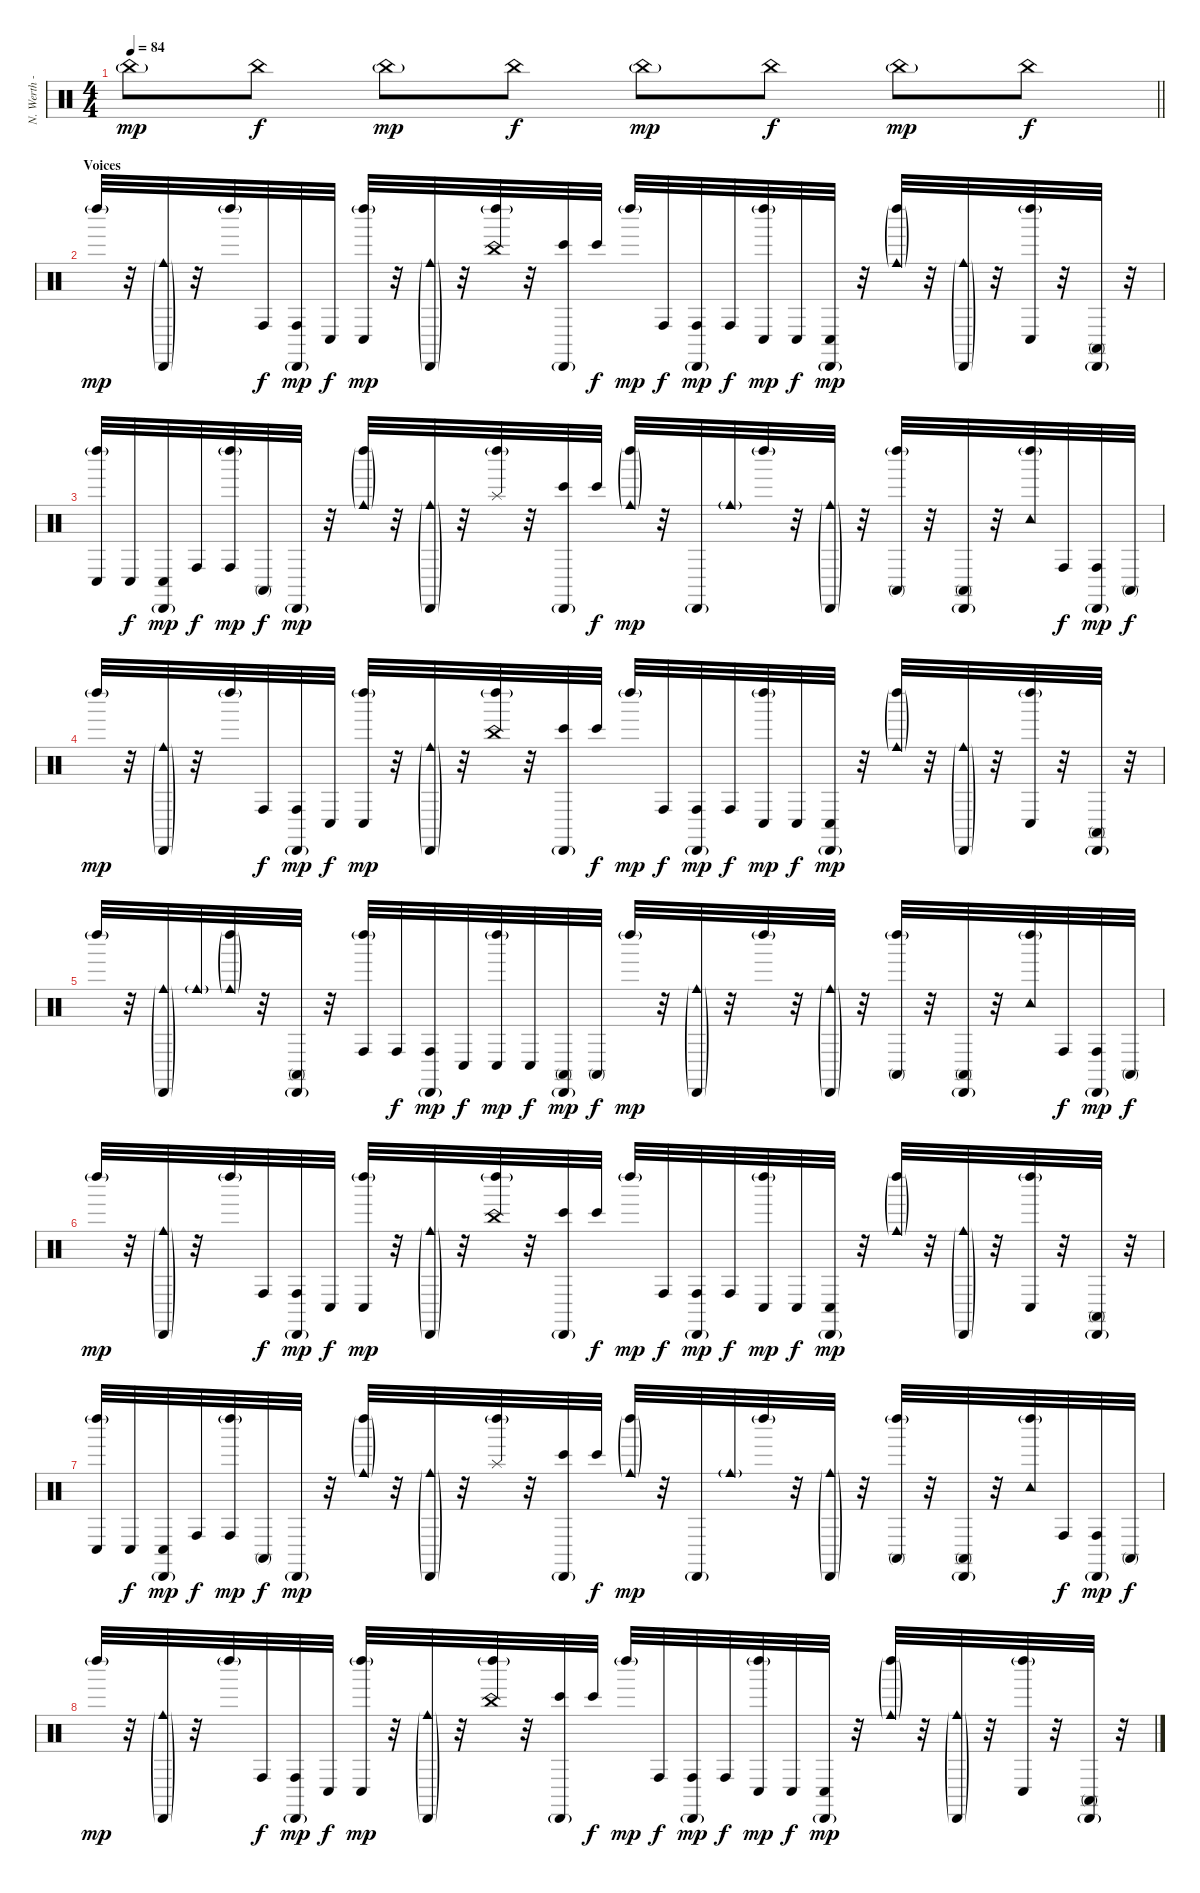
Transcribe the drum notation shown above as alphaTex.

\track ("N. Werth - Percussion" "N. Werth -") {instrument percussion}
\staff {score}
\articulation defaults
\ts (4 4)
\tempo 84
\clef neutral
\barLineRight lightlight
\ks c "China (hit)"{g}.8{dy mp} "China (hit)".8{dy f} "China (hit)"{g}.8{dy mp} "China (hit)".8{dy f} "China (hit)"{g}.8{dy mp} "China (hit)".8{dy f} "China (hit)"{g}.8{dy mp} "China (hit)".8{dy f}
|
\section ("" "Voices")
"Left Maraca (hit)"{g}.32{dy mp} r.32 ("Cabasa (hit)"{g} "Cowbell medium (hit)"{g}).32 r.32 "Left Maraca (hit)"{g}.32 "Conga high (hit)".32{dy f} ("Cabasa (hit)"{g} "Conga high (hit)").32{dy mp} "Conga low (hit)".32{dy f} ("Left Maraca (hit)"{g} "Conga low (hit)").32{dy mp} r.32 ("Cabasa (hit)"{g} "Cowbell medium (hit)"{g}).32 r.32 ("Left Maraca (hit)"{g} "China (hit)").32 r.32 ("Cabasa (hit)"{g} "Bongo High (hit)").32 "Bongo High (hit)".32{dy f} "Left Maraca (hit)"{g}.32{dy mp} "Conga high (hit)".32{dy f} ("Cabasa (hit)"{g} "Conga high (hit)").32{dy mp} "Conga high (hit)".32{dy f} ("Left Maraca (hit)"{g} "Conga low (hit)").32{dy mp} "Conga low (hit)".32{dy f} ("Cabasa (hit)"{g} "Conga low (hit)").32{dy mp} r.32 ("Left Maraca (hit)"{g} "Cowbell medium (hit)"{g}).32 r.32 ("Cabasa (hit)"{g} "Cowbell medium (hit)"{g}).32 r.32 ("Left Maraca (hit)"{g} "Conga low (hit)").32 r.32 ("Cabasa (hit)"{g} "Conga high (mute)").32 r.32 |
("Left Maraca (hit)"{g} "Conga low (hit)").32 "Conga low (hit)".32{dy f} ("Cabasa (hit)"{g} "Conga low (hit)").32{dy mp} "Conga high (hit)".32{dy f} ("Left Maraca (hit)"{g} "Conga high (hit)").32{dy mp} "Conga high (mute)".32{dy f} "Cabasa (hit)"{g}.32{dy mp} r.32 ("Left Maraca (hit)"{g} "Cowbell medium (hit)"{g}).32 r.32 ("Cabasa (hit)"{g} "Cowbell medium (hit)"{g}).32 r.32 ("Left Maraca (hit)"{g} "Splash (hit)").32 r.32 ("Cabasa (hit)"{g} "Bongo High (hit)").32 "Bongo High (hit)".32{dy f} ("Left Maraca (hit)"{g} "Cowbell medium (hit)"{g}).32{dy mp} r.32 "Cabasa (hit)"{g}.32 "Cowbell medium (hit)"{g}.32 "Left Maraca (hit)"{g}.32 r.32 ("Cabasa (hit)"{g} "Cowbell medium (hit)"{g}).32 r.32 ("Left Maraca (hit)"{g} "Conga high (mute)").32 r.32 ("Cabasa (hit)"{g} "Conga high (mute)").32 r.32 ("Left Maraca (hit)"{g} "Tambourine (hit)").32 "Conga high (hit)".32{dy f} ("Cabasa (hit)"{g} "Conga high (hit)").32{dy mp} "Conga high (mute)".32{dy f} |
"Left Maraca (hit)"{g}.32{dy mp} r.32 ("Cabasa (hit)"{g} "Cowbell medium (hit)"{g}).32 r.32 "Left Maraca (hit)"{g}.32 "Conga high (hit)".32{dy f} ("Cabasa (hit)"{g} "Conga high (hit)").32{dy mp} "Conga low (hit)".32{dy f} ("Left Maraca (hit)"{g} "Conga low (hit)").32{dy mp} r.32 ("Cabasa (hit)"{g} "Cowbell medium (hit)"{g}).32 r.32 ("Left Maraca (hit)"{g} "China (hit)").32 r.32 ("Cabasa (hit)"{g} "Bongo High (hit)").32 "Bongo High (hit)".32{dy f} "Left Maraca (hit)"{g}.32{dy mp} "Conga high (hit)".32{dy f} ("Cabasa (hit)"{g} "Conga high (hit)").32{dy mp} "Conga high (hit)".32{dy f} ("Left Maraca (hit)"{g} "Conga low (hit)").32{dy mp} "Conga low (hit)".32{dy f} ("Cabasa (hit)"{g} "Conga low (hit)").32{dy mp} r.32 ("Left Maraca (hit)"{g} "Cowbell medium (hit)"{g}).32 r.32 ("Cabasa (hit)"{g} "Cowbell medium (hit)"{g}).32 r.32 ("Left Maraca (hit)"{g} "Conga low (hit)").32 r.32 ("Cabasa (hit)"{g} "Conga high (mute)").32 r.32 |
"Left Maraca (hit)"{g}.32 r.32 ("Cabasa (hit)"{g} "Cowbell medium (hit)"{g}).32 "Cowbell medium (hit)"{g}.32 ("Left Maraca (hit)"{g} "Cowbell medium (hit)"{g}).32 r.32 ("Cabasa (hit)"{g} "Conga high (mute)").32 r.32 ("Left Maraca (hit)"{g} "Conga high (hit)").32 "Conga high (hit)".32{dy f} ("Cabasa (hit)"{g} "Conga high (hit)").32{dy mp} "Conga low (hit)".32{dy f} ("Left Maraca (hit)"{g} "Conga low (hit)").32{dy mp} "Conga low (hit)".32{dy f} ("Cabasa (hit)"{g} "Conga high (mute)").32{dy mp} "Conga high (mute)".32{dy f} "Left Maraca (hit)"{g}.32{dy mp} r.32 ("Cabasa (hit)"{g} "Cowbell medium (hit)"{g}).32 r.32 "Left Maraca (hit)"{g}.32 r.32 ("Cabasa (hit)"{g} "Cowbell medium (hit)"{g}).32 r.32 ("Left Maraca (hit)"{g} "Conga high (mute)").32 r.32 ("Cabasa (hit)"{g} "Conga high (mute)").32 r.32 ("Left Maraca (hit)"{g} "Tambourine (hit)").32 "Conga high (hit)".32{dy f} ("Cabasa (hit)"{g} "Conga high (hit)").32{dy mp} "Conga high (mute)".32{dy f} |
"Left Maraca (hit)"{g}.32{dy mp} r.32 ("Cabasa (hit)"{g} "Cowbell medium (hit)"{g}).32 r.32 "Left Maraca (hit)"{g}.32 "Conga high (hit)".32{dy f} ("Cabasa (hit)"{g} "Conga high (hit)").32{dy mp} "Conga low (hit)".32{dy f} ("Left Maraca (hit)"{g} "Conga low (hit)").32{dy mp} r.32 ("Cabasa (hit)"{g} "Cowbell medium (hit)"{g}).32 r.32 ("Left Maraca (hit)"{g} "China (hit)").32 r.32 ("Cabasa (hit)"{g} "Bongo High (hit)").32 "Bongo High (hit)".32{dy f} "Left Maraca (hit)"{g}.32{dy mp} "Conga high (hit)".32{dy f} ("Cabasa (hit)"{g} "Conga high (hit)").32{dy mp} "Conga high (hit)".32{dy f} ("Left Maraca (hit)"{g} "Conga low (hit)").32{dy mp} "Conga low (hit)".32{dy f} ("Cabasa (hit)"{g} "Conga low (hit)").32{dy mp} r.32 ("Left Maraca (hit)"{g} "Cowbell medium (hit)"{g}).32 r.32 ("Cabasa (hit)"{g} "Cowbell medium (hit)"{g}).32 r.32 ("Left Maraca (hit)"{g} "Conga low (hit)").32 r.32 ("Cabasa (hit)"{g} "Conga high (mute)").32 r.32 |
("Left Maraca (hit)"{g} "Conga low (hit)").32 "Conga low (hit)".32{dy f} ("Cabasa (hit)"{g} "Conga low (hit)").32{dy mp} "Conga high (hit)".32{dy f} ("Left Maraca (hit)"{g} "Conga high (hit)").32{dy mp} "Conga high (mute)".32{dy f} "Cabasa (hit)"{g}.32{dy mp} r.32 ("Left Maraca (hit)"{g} "Cowbell medium (hit)"{g}).32 r.32 ("Cabasa (hit)"{g} "Cowbell medium (hit)"{g}).32 r.32 ("Left Maraca (hit)"{g} "Splash (hit)").32 r.32 ("Cabasa (hit)"{g} "Bongo High (hit)").32 "Bongo High (hit)".32{dy f} ("Left Maraca (hit)"{g} "Cowbell medium (hit)"{g}).32{dy mp} r.32 "Cabasa (hit)"{g}.32 "Cowbell medium (hit)"{g}.32 "Left Maraca (hit)"{g}.32 r.32 ("Cabasa (hit)"{g} "Cowbell medium (hit)"{g}).32 r.32 ("Left Maraca (hit)"{g} "Conga high (mute)").32 r.32 ("Cabasa (hit)"{g} "Conga high (mute)").32 r.32 ("Left Maraca (hit)"{g} "Tambourine (hit)").32 "Conga high (hit)".32{dy f} ("Cabasa (hit)"{g} "Conga high (hit)").32{dy mp} "Conga high (mute)".32{dy f} |
"Left Maraca (hit)"{g}.32{dy mp} r.32 ("Cabasa (hit)"{g} "Cowbell medium (hit)"{g}).32 r.32 "Left Maraca (hit)"{g}.32 "Conga high (hit)".32{dy f} ("Cabasa (hit)"{g} "Conga high (hit)").32{dy mp} "Conga low (hit)".32{dy f} ("Left Maraca (hit)"{g} "Conga low (hit)").32{dy mp} r.32 ("Cabasa (hit)"{g} "Cowbell medium (hit)"{g}).32 r.32 ("Left Maraca (hit)"{g} "China (hit)").32 r.32 ("Cabasa (hit)"{g} "Bongo High (hit)").32 "Bongo High (hit)".32{dy f} "Left Maraca (hit)"{g}.32{dy mp} "Conga high (hit)".32{dy f} ("Cabasa (hit)"{g} "Conga high (hit)").32{dy mp} "Conga high (hit)".32{dy f} ("Left Maraca (hit)"{g} "Conga low (hit)").32{dy mp} "Conga low (hit)".32{dy f} ("Cabasa (hit)"{g} "Conga low (hit)").32{dy mp} r.32 ("Left Maraca (hit)"{g} "Cowbell medium (hit)"{g}).32 r.32 ("Cabasa (hit)"{g} "Cowbell medium (hit)"{g}).32 r.32 ("Left Maraca (hit)"{g} "Conga low (hit)").32 r.32 ("Cabasa (hit)"{g} "Conga high (mute)").32 r.32
